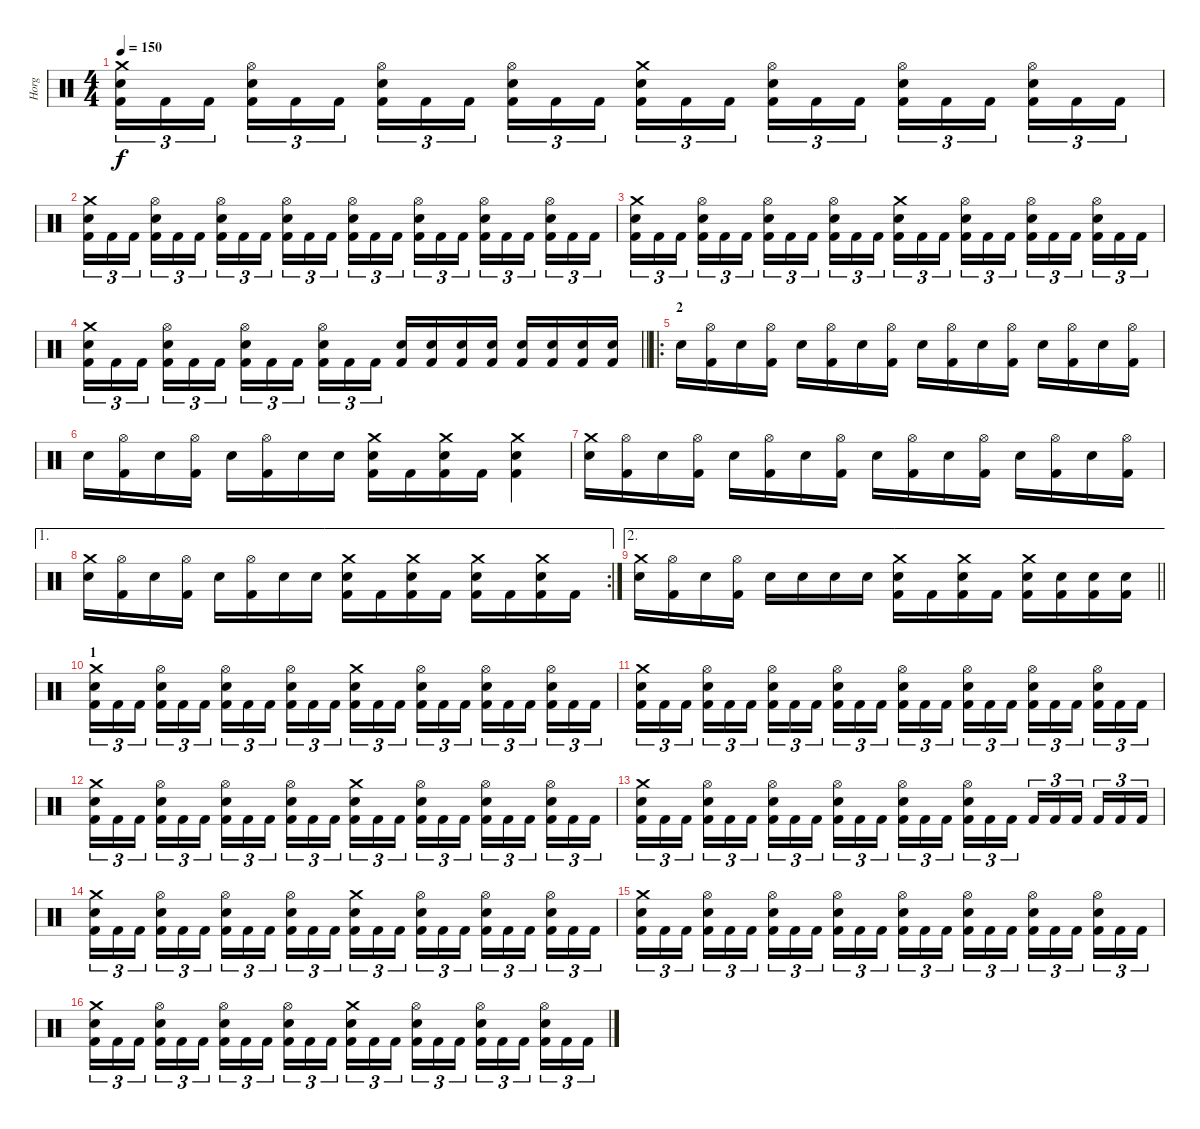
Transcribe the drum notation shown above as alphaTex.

\track ("Horg" "Horg") {instrument percussion}
\staff {score}
\articulation defaults
\ts (4 4)
\tempo 150
\clef neutral
\ks c
("Crash medium (hit)" "Snare (hit) 2" "Kick (hit) 2").16{tu (3 2) dy f} "Kick (hit) 2".16{tu (3 2)} "Kick (hit) 2".16{tu (3 2) beam splitsecondary} ("Hi-Hat (open)" "Snare (hit) 2" "Kick (hit) 2").16{tu (3 2)} "Kick (hit) 2".16{tu (3 2)} "Kick (hit) 2".16{tu (3 2)} ("Hi-Hat (open)" "Snare (hit) 2" "Kick (hit) 2").16{tu (3 2)} "Kick (hit) 2".16{tu (3 2)} "Kick (hit) 2".16{tu (3 2) beam splitsecondary} ("Hi-Hat (open)" "Snare (hit) 2" "Kick (hit) 2").16{tu (3 2)} "Kick (hit) 2".16{tu (3 2)} "Kick (hit) 2".16{tu (3 2)} ("Crash medium (hit)" "Snare (hit) 2" "Kick (hit) 2").16{tu (3 2)} "Kick (hit) 2".16{tu (3 2)} "Kick (hit) 2".16{tu (3 2) beam splitsecondary} ("Hi-Hat (open)" "Snare (hit) 2" "Kick (hit) 2").16{tu (3 2)} "Kick (hit) 2".16{tu (3 2)} "Kick (hit) 2".16{tu (3 2)} ("Hi-Hat (open)" "Snare (hit) 2" "Kick (hit) 2").16{tu (3 2)} "Kick (hit) 2".16{tu (3 2)} "Kick (hit) 2".16{tu (3 2) beam splitsecondary} ("Hi-Hat (open)" "Snare (hit) 2" "Kick (hit) 2").16{tu (3 2)} "Kick (hit) 2".16{tu (3 2)} "Kick (hit) 2".16{tu (3 2)} |
("Crash medium (hit)" "Snare (hit) 2" "Kick (hit) 2").16{tu (3 2)} "Kick (hit) 2".16{tu (3 2)} "Kick (hit) 2".16{tu (3 2) beam splitsecondary} ("Hi-Hat (open)" "Snare (hit) 2" "Kick (hit) 2").16{tu (3 2)} "Kick (hit) 2".16{tu (3 2)} "Kick (hit) 2".16{tu (3 2)} ("Hi-Hat (open)" "Snare (hit) 2" "Kick (hit) 2").16{tu (3 2)} "Kick (hit) 2".16{tu (3 2)} "Kick (hit) 2".16{tu (3 2) beam splitsecondary} ("Hi-Hat (open)" "Snare (hit) 2" "Kick (hit) 2").16{tu (3 2)} "Kick (hit) 2".16{tu (3 2)} "Kick (hit) 2".16{tu (3 2)} ("Hi-Hat (open)" "Snare (hit) 2" "Kick (hit) 2").16{tu (3 2)} "Kick (hit) 2".16{tu (3 2)} "Kick (hit) 2".16{tu (3 2) beam splitsecondary} ("Hi-Hat (open)" "Snare (hit) 2" "Kick (hit) 2").16{tu (3 2)} "Kick (hit) 2".16{tu (3 2)} "Kick (hit) 2".16{tu (3 2)} ("Hi-Hat (open)" "Snare (hit) 2" "Kick (hit) 2").16{tu (3 2)} "Kick (hit) 2".16{tu (3 2)} "Kick (hit) 2".16{tu (3 2) beam splitsecondary} ("Hi-Hat (open)" "Snare (hit) 2" "Kick (hit) 2").16{tu (3 2)} "Kick (hit) 2".16{tu (3 2)} "Kick (hit) 2".16{tu (3 2)} |
("Crash medium (hit)" "Snare (hit) 2" "Kick (hit) 2").16{tu (3 2)} "Kick (hit) 2".16{tu (3 2)} "Kick (hit) 2".16{tu (3 2) beam splitsecondary} ("Hi-Hat (open)" "Snare (hit) 2" "Kick (hit) 2").16{tu (3 2)} "Kick (hit) 2".16{tu (3 2)} "Kick (hit) 2".16{tu (3 2)} ("Hi-Hat (open)" "Snare (hit) 2" "Kick (hit) 2").16{tu (3 2)} "Kick (hit) 2".16{tu (3 2)} "Kick (hit) 2".16{tu (3 2) beam splitsecondary} ("Hi-Hat (open)" "Snare (hit) 2" "Kick (hit) 2").16{tu (3 2)} "Kick (hit) 2".16{tu (3 2)} "Kick (hit) 2".16{tu (3 2)} ("Crash medium (hit)" "Snare (hit) 2" "Kick (hit) 2").16{tu (3 2)} "Kick (hit) 2".16{tu (3 2)} "Kick (hit) 2".16{tu (3 2) beam splitsecondary} ("Hi-Hat (open)" "Snare (hit) 2" "Kick (hit) 2").16{tu (3 2)} "Kick (hit) 2".16{tu (3 2)} "Kick (hit) 2".16{tu (3 2)} ("Hi-Hat (open)" "Snare (hit) 2" "Kick (hit) 2").16{tu (3 2)} "Kick (hit) 2".16{tu (3 2)} "Kick (hit) 2".16{tu (3 2) beam splitsecondary} ("Hi-Hat (open)" "Snare (hit) 2" "Kick (hit) 2").16{tu (3 2)} "Kick (hit) 2".16{tu (3 2)} "Kick (hit) 2".16{tu (3 2)} |
\barLineRight lightlight
("Crash medium (hit)" "Snare (hit) 2" "Kick (hit) 2").16{tu (3 2)} "Kick (hit) 2".16{tu (3 2)} "Kick (hit) 2".16{tu (3 2) beam splitsecondary} ("Hi-Hat (open)" "Snare (hit) 2" "Kick (hit) 2").16{tu (3 2)} "Kick (hit) 2".16{tu (3 2)} "Kick (hit) 2".16{tu (3 2)} ("Hi-Hat (open)" "Snare (hit) 2" "Kick (hit) 2").16{tu (3 2)} "Kick (hit) 2".16{tu (3 2)} "Kick (hit) 2".16{tu (3 2) beam splitsecondary} ("Hi-Hat (open)" "Snare (hit) 2" "Kick (hit) 2").16{tu (3 2)} "Kick (hit) 2".16{tu (3 2)} "Kick (hit) 2".16{tu (3 2)} ("Snare (hit) 2" "Kick (hit) 2").16 ("Snare (hit) 2" "Kick (hit) 2").16 ("Snare (hit) 2" "Kick (hit) 2").16 ("Snare (hit) 2" "Kick (hit) 2").16 ("Snare (hit) 2" "Kick (hit) 2").16 ("Snare (hit) 2" "Kick (hit) 2").16 ("Snare (hit) 2" "Kick (hit) 2").16 ("Snare (hit) 2" "Kick (hit) 2").16 |
\ro
\section ("" "2")
"Snare (hit) 2".16 ("Hi-Hat (open)" "Kick (hit) 2").16 "Snare (hit) 2".16 ("Hi-Hat (open)" "Kick (hit) 2").16 "Snare (hit) 2".16 ("Hi-Hat (open)" "Kick (hit) 2").16 "Snare (hit) 2".16 ("Hi-Hat (open)" "Kick (hit) 2").16 "Snare (hit) 2".16 ("Hi-Hat (open)" "Kick (hit) 2").16 "Snare (hit) 2".16 ("Hi-Hat (open)" "Kick (hit) 2").16 "Snare (hit) 2".16 ("Hi-Hat (open)" "Kick (hit) 2").16 "Snare (hit) 2".16 ("Hi-Hat (open)" "Kick (hit) 2").16 |
"Snare (hit) 2".16 ("Hi-Hat (open)" "Kick (hit) 2").16 "Snare (hit) 2".16 ("Hi-Hat (open)" "Kick (hit) 2").16 "Snare (hit) 2".16 ("Hi-Hat (open)" "Kick (hit) 2").16 "Snare (hit) 2".16 "Snare (hit) 2".16 ("Crash medium (hit)" "Snare (hit) 2" "Kick (hit) 2").16 "Kick (hit) 2".16 ("Crash medium (hit)" "Snare (hit) 2" "Kick (hit) 2").16 "Kick (hit) 2".16 ("Crash medium (hit)" "Snare (hit) 2" "Kick (hit) 2").4 |
("Crash medium (hit)" "Snare (hit) 2").16 ("Hi-Hat (open)" "Kick (hit) 2").16 "Snare (hit) 2".16 ("Hi-Hat (open)" "Kick (hit) 2").16 "Snare (hit) 2".16 ("Hi-Hat (open)" "Kick (hit) 2").16 "Snare (hit) 2".16 ("Hi-Hat (open)" "Kick (hit) 2").16 "Snare (hit) 2".16 ("Hi-Hat (open)" "Kick (hit) 2").16 "Snare (hit) 2".16 ("Hi-Hat (open)" "Kick (hit) 2").16 "Snare (hit) 2".16 ("Hi-Hat (open)" "Kick (hit) 2").16 "Snare (hit) 2".16 ("Hi-Hat (open)" "Kick (hit) 2").16 |
\ae 1
\rc 2
("Crash medium (hit)" "Snare (hit) 2").16 ("Hi-Hat (open)" "Kick (hit) 2").16 "Snare (hit) 2".16 ("Hi-Hat (open)" "Kick (hit) 2").16 "Snare (hit) 2".16 ("Hi-Hat (open)" "Kick (hit) 2").16 "Snare (hit) 2".16 "Snare (hit) 2".16 ("Crash medium (hit)" "Snare (hit) 2" "Kick (hit) 2").16 "Kick (hit) 2".16 ("Crash medium (hit)" "Snare (hit) 2" "Kick (hit) 2").16 "Kick (hit) 2".16 ("Crash medium (hit)" "Snare (hit) 2" "Kick (hit) 2").16 "Kick (hit) 2".16 ("Crash medium (hit)" "Snare (hit) 2" "Kick (hit) 2").16 "Kick (hit) 2".16 |
\ae 2
\barLineRight lightlight
("Crash medium (hit)" "Snare (hit) 2").16 ("Hi-Hat (open)" "Kick (hit) 2").16 "Snare (hit) 2".16 ("Hi-Hat (open)" "Kick (hit) 2").16 "Snare (hit) 2".16 "Snare (hit) 2".16 "Snare (hit) 2".16 "Snare (hit) 2".16 ("Crash medium (hit)" "Snare (hit) 2" "Kick (hit) 2").16 "Kick (hit) 2".16 ("Crash medium (hit)" "Snare (hit) 2" "Kick (hit) 2").16 "Kick (hit) 2".16 ("Crash medium (hit)" "Snare (hit) 2" "Kick (hit) 2").16 ("Snare (hit) 2" "Kick (hit) 2").16 ("Snare (hit) 2" "Kick (hit) 2").16 ("Snare (hit) 2" "Kick (hit) 2").16 |
\section ("" "1")
("Crash medium (hit)" "Snare (hit) 2" "Kick (hit) 2").16{tu (3 2)} "Kick (hit) 2".16{tu (3 2)} "Kick (hit) 2".16{tu (3 2) beam splitsecondary} ("Hi-Hat (open)" "Snare (hit) 2" "Kick (hit) 2").16{tu (3 2)} "Kick (hit) 2".16{tu (3 2)} "Kick (hit) 2".16{tu (3 2)} ("Hi-Hat (open)" "Snare (hit) 2" "Kick (hit) 2").16{tu (3 2)} "Kick (hit) 2".16{tu (3 2)} "Kick (hit) 2".16{tu (3 2) beam splitsecondary} ("Hi-Hat (open)" "Snare (hit) 2" "Kick (hit) 2").16{tu (3 2)} "Kick (hit) 2".16{tu (3 2)} "Kick (hit) 2".16{tu (3 2)} ("Crash medium (hit)" "Snare (hit) 2" "Kick (hit) 2").16{tu (3 2)} "Kick (hit) 2".16{tu (3 2)} "Kick (hit) 2".16{tu (3 2) beam splitsecondary} ("Hi-Hat (open)" "Snare (hit) 2" "Kick (hit) 2").16{tu (3 2)} "Kick (hit) 2".16{tu (3 2)} "Kick (hit) 2".16{tu (3 2)} ("Hi-Hat (open)" "Snare (hit) 2" "Kick (hit) 2").16{tu (3 2)} "Kick (hit) 2".16{tu (3 2)} "Kick (hit) 2".16{tu (3 2) beam splitsecondary} ("Hi-Hat (open)" "Snare (hit) 2" "Kick (hit) 2").16{tu (3 2)} "Kick (hit) 2".16{tu (3 2)} "Kick (hit) 2".16{tu (3 2)} |
("Crash medium (hit)" "Snare (hit) 2" "Kick (hit) 2").16{tu (3 2)} "Kick (hit) 2".16{tu (3 2)} "Kick (hit) 2".16{tu (3 2) beam splitsecondary} ("Hi-Hat (open)" "Snare (hit) 2" "Kick (hit) 2").16{tu (3 2)} "Kick (hit) 2".16{tu (3 2)} "Kick (hit) 2".16{tu (3 2)} ("Hi-Hat (open)" "Snare (hit) 2" "Kick (hit) 2").16{tu (3 2)} "Kick (hit) 2".16{tu (3 2)} "Kick (hit) 2".16{tu (3 2) beam splitsecondary} ("Hi-Hat (open)" "Snare (hit) 2" "Kick (hit) 2").16{tu (3 2)} "Kick (hit) 2".16{tu (3 2)} "Kick (hit) 2".16{tu (3 2)} ("Hi-Hat (open)" "Snare (hit) 2" "Kick (hit) 2").16{tu (3 2)} "Kick (hit) 2".16{tu (3 2)} "Kick (hit) 2".16{tu (3 2) beam splitsecondary} ("Hi-Hat (open)" "Snare (hit) 2" "Kick (hit) 2").16{tu (3 2)} "Kick (hit) 2".16{tu (3 2)} "Kick (hit) 2".16{tu (3 2)} ("Hi-Hat (open)" "Snare (hit) 2" "Kick (hit) 2").16{tu (3 2)} "Kick (hit) 2".16{tu (3 2)} "Kick (hit) 2".16{tu (3 2) beam splitsecondary} ("Hi-Hat (open)" "Snare (hit) 2" "Kick (hit) 2").16{tu (3 2)} "Kick (hit) 2".16{tu (3 2)} "Kick (hit) 2".16{tu (3 2)} |
("Crash medium (hit)" "Snare (hit) 2" "Kick (hit) 2").16{tu (3 2)} "Kick (hit) 2".16{tu (3 2)} "Kick (hit) 2".16{tu (3 2) beam splitsecondary} ("Hi-Hat (open)" "Snare (hit) 2" "Kick (hit) 2").16{tu (3 2)} "Kick (hit) 2".16{tu (3 2)} "Kick (hit) 2".16{tu (3 2)} ("Hi-Hat (open)" "Snare (hit) 2" "Kick (hit) 2").16{tu (3 2)} "Kick (hit) 2".16{tu (3 2)} "Kick (hit) 2".16{tu (3 2) beam splitsecondary} ("Hi-Hat (open)" "Snare (hit) 2" "Kick (hit) 2").16{tu (3 2)} "Kick (hit) 2".16{tu (3 2)} "Kick (hit) 2".16{tu (3 2)} ("Crash medium (hit)" "Snare (hit) 2" "Kick (hit) 2").16{tu (3 2)} "Kick (hit) 2".16{tu (3 2)} "Kick (hit) 2".16{tu (3 2) beam splitsecondary} ("Hi-Hat (open)" "Snare (hit) 2" "Kick (hit) 2").16{tu (3 2)} "Kick (hit) 2".16{tu (3 2)} "Kick (hit) 2".16{tu (3 2)} ("Hi-Hat (open)" "Snare (hit) 2" "Kick (hit) 2").16{tu (3 2)} "Kick (hit) 2".16{tu (3 2)} "Kick (hit) 2".16{tu (3 2) beam splitsecondary} ("Hi-Hat (open)" "Snare (hit) 2" "Kick (hit) 2").16{tu (3 2)} "Kick (hit) 2".16{tu (3 2)} "Kick (hit) 2".16{tu (3 2)} |
("Crash medium (hit)" "Snare (hit) 2" "Kick (hit) 2").16{tu (3 2)} "Kick (hit) 2".16{tu (3 2)} "Kick (hit) 2".16{tu (3 2) beam splitsecondary} ("Hi-Hat (open)" "Snare (hit) 2" "Kick (hit) 2").16{tu (3 2)} "Kick (hit) 2".16{tu (3 2)} "Kick (hit) 2".16{tu (3 2)} ("Hi-Hat (open)" "Snare (hit) 2" "Kick (hit) 2").16{tu (3 2)} "Kick (hit) 2".16{tu (3 2)} "Kick (hit) 2".16{tu (3 2) beam splitsecondary} ("Hi-Hat (open)" "Snare (hit) 2" "Kick (hit) 2").16{tu (3 2)} "Kick (hit) 2".16{tu (3 2)} "Kick (hit) 2".16{tu (3 2)} ("Hi-Hat (open)" "Snare (hit) 2" "Kick (hit) 2").16{tu (3 2)} "Kick (hit) 2".16{tu (3 2)} "Kick (hit) 2".16{tu (3 2) beam splitsecondary} ("Hi-Hat (open)" "Snare (hit) 2" "Kick (hit) 2").16{tu (3 2)} "Kick (hit) 2".16{tu (3 2)} "Kick (hit) 2".16{tu (3 2)} "Kick (hit) 2".16{tu (3 2)} "Kick (hit) 2".16{tu (3 2)} "Kick (hit) 2".16{tu (3 2) beam splitsecondary} "Kick (hit) 2".16{tu (3 2)} "Kick (hit) 2".16{tu (3 2)} "Kick (hit) 2".16{tu (3 2)} |
("Crash medium (hit)" "Snare (hit) 2" "Kick (hit) 2").16{tu (3 2)} "Kick (hit) 2".16{tu (3 2)} "Kick (hit) 2".16{tu (3 2) beam splitsecondary} ("Hi-Hat (open)" "Snare (hit) 2" "Kick (hit) 2").16{tu (3 2)} "Kick (hit) 2".16{tu (3 2)} "Kick (hit) 2".16{tu (3 2)} ("Hi-Hat (open)" "Snare (hit) 2" "Kick (hit) 2").16{tu (3 2)} "Kick (hit) 2".16{tu (3 2)} "Kick (hit) 2".16{tu (3 2) beam splitsecondary} ("Hi-Hat (open)" "Snare (hit) 2" "Kick (hit) 2").16{tu (3 2)} "Kick (hit) 2".16{tu (3 2)} "Kick (hit) 2".16{tu (3 2)} ("Crash medium (hit)" "Snare (hit) 2" "Kick (hit) 2").16{tu (3 2)} "Kick (hit) 2".16{tu (3 2)} "Kick (hit) 2".16{tu (3 2) beam splitsecondary} ("Hi-Hat (open)" "Snare (hit) 2" "Kick (hit) 2").16{tu (3 2)} "Kick (hit) 2".16{tu (3 2)} "Kick (hit) 2".16{tu (3 2)} ("Hi-Hat (open)" "Snare (hit) 2" "Kick (hit) 2").16{tu (3 2)} "Kick (hit) 2".16{tu (3 2)} "Kick (hit) 2".16{tu (3 2) beam splitsecondary} ("Hi-Hat (open)" "Snare (hit) 2" "Kick (hit) 2").16{tu (3 2)} "Kick (hit) 2".16{tu (3 2)} "Kick (hit) 2".16{tu (3 2)} |
("Crash medium (hit)" "Snare (hit) 2" "Kick (hit) 2").16{tu (3 2)} "Kick (hit) 2".16{tu (3 2)} "Kick (hit) 2".16{tu (3 2) beam splitsecondary} ("Hi-Hat (open)" "Snare (hit) 2" "Kick (hit) 2").16{tu (3 2)} "Kick (hit) 2".16{tu (3 2)} "Kick (hit) 2".16{tu (3 2)} ("Hi-Hat (open)" "Snare (hit) 2" "Kick (hit) 2").16{tu (3 2)} "Kick (hit) 2".16{tu (3 2)} "Kick (hit) 2".16{tu (3 2) beam splitsecondary} ("Hi-Hat (open)" "Snare (hit) 2" "Kick (hit) 2").16{tu (3 2)} "Kick (hit) 2".16{tu (3 2)} "Kick (hit) 2".16{tu (3 2)} ("Hi-Hat (open)" "Snare (hit) 2" "Kick (hit) 2").16{tu (3 2)} "Kick (hit) 2".16{tu (3 2)} "Kick (hit) 2".16{tu (3 2) beam splitsecondary} ("Hi-Hat (open)" "Snare (hit) 2" "Kick (hit) 2").16{tu (3 2)} "Kick (hit) 2".16{tu (3 2)} "Kick (hit) 2".16{tu (3 2)} ("Hi-Hat (open)" "Snare (hit) 2" "Kick (hit) 2").16{tu (3 2)} "Kick (hit) 2".16{tu (3 2)} "Kick (hit) 2".16{tu (3 2) beam splitsecondary} ("Hi-Hat (open)" "Snare (hit) 2" "Kick (hit) 2").16{tu (3 2)} "Kick (hit) 2".16{tu (3 2)} "Kick (hit) 2".16{tu (3 2)} |
("Crash medium (hit)" "Snare (hit) 2" "Kick (hit) 2").16{tu (3 2)} "Kick (hit) 2".16{tu (3 2)} "Kick (hit) 2".16{tu (3 2) beam splitsecondary} ("Hi-Hat (open)" "Snare (hit) 2" "Kick (hit) 2").16{tu (3 2)} "Kick (hit) 2".16{tu (3 2)} "Kick (hit) 2".16{tu (3 2)} ("Hi-Hat (open)" "Snare (hit) 2" "Kick (hit) 2").16{tu (3 2)} "Kick (hit) 2".16{tu (3 2)} "Kick (hit) 2".16{tu (3 2) beam splitsecondary} ("Hi-Hat (open)" "Snare (hit) 2" "Kick (hit) 2").16{tu (3 2)} "Kick (hit) 2".16{tu (3 2)} "Kick (hit) 2".16{tu (3 2)} ("Crash medium (hit)" "Snare (hit) 2" "Kick (hit) 2").16{tu (3 2)} "Kick (hit) 2".16{tu (3 2)} "Kick (hit) 2".16{tu (3 2) beam splitsecondary} ("Hi-Hat (open)" "Snare (hit) 2" "Kick (hit) 2").16{tu (3 2)} "Kick (hit) 2".16{tu (3 2)} "Kick (hit) 2".16{tu (3 2)} ("Hi-Hat (open)" "Snare (hit) 2" "Kick (hit) 2").16{tu (3 2)} "Kick (hit) 2".16{tu (3 2)} "Kick (hit) 2".16{tu (3 2) beam splitsecondary} ("Hi-Hat (open)" "Snare (hit) 2" "Kick (hit) 2").16{tu (3 2)} "Kick (hit) 2".16{tu (3 2)} "Kick (hit) 2".16{tu (3 2)}
